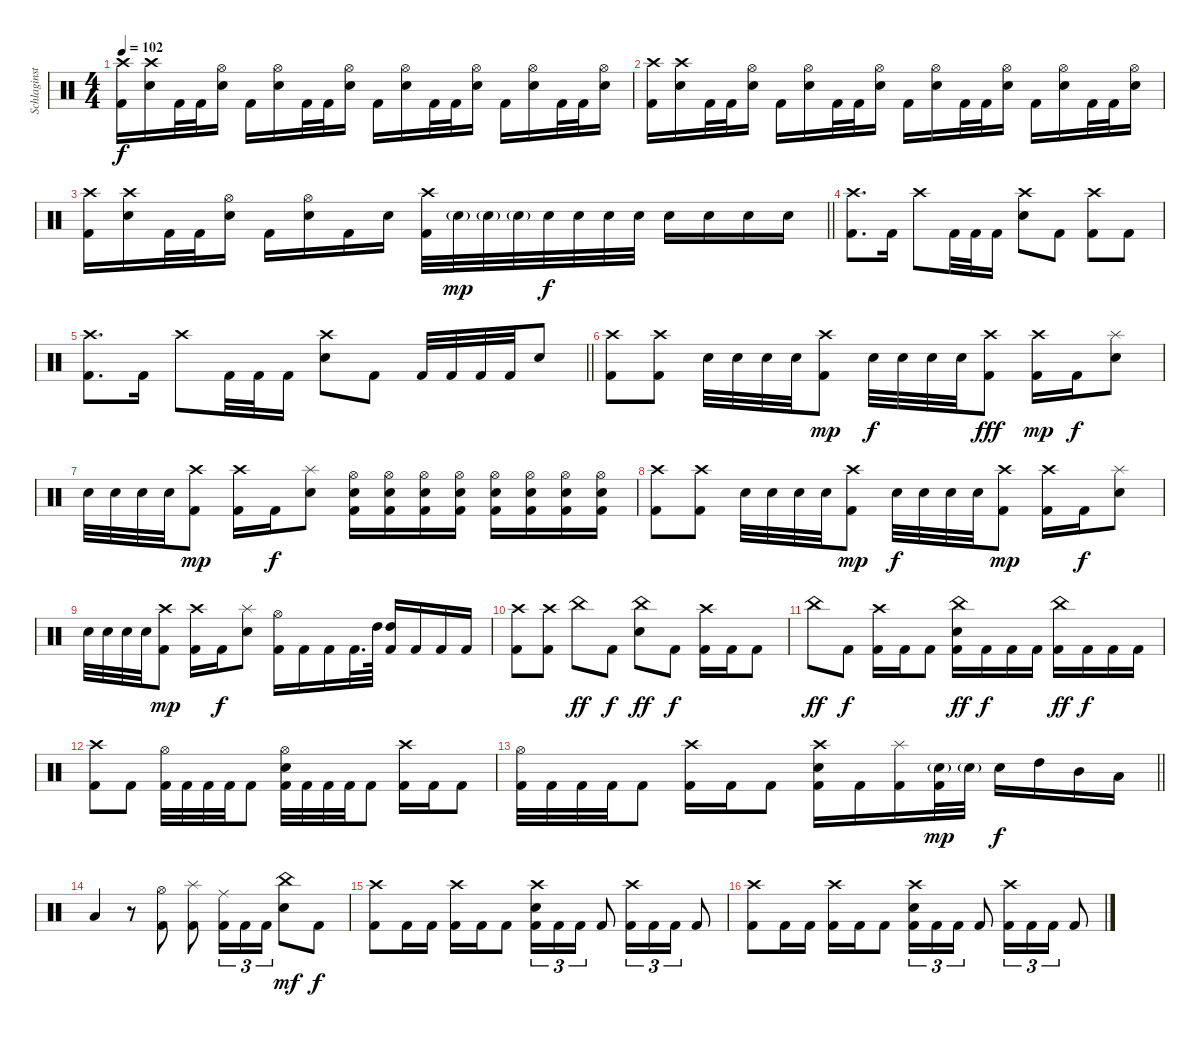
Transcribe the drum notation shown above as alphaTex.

\track ("Schlaginstrumente - Auswahl" "Schlaginst") {instrument percussion}
\staff {score}
\articulation defaults
\ts (4 4)
\tempo 102
\clef neutral
\ks c
("Crash high (hit)" "Kick (hit) 2").16{dy f} ("Crash high (hit)" "Snare (hit) 2").16 "Kick (hit) 2".32 "Kick (hit) 2".32 ("Hi-Hat (open)" "Snare (hit) 2").16 "Kick (hit) 2".16 ("Hi-Hat (open)" "Snare (hit) 2").16 "Kick (hit) 2".32 "Kick (hit) 2".32 ("Hi-Hat (open)" "Snare (hit) 2").16 "Kick (hit) 2".16 ("Hi-Hat (open)" "Snare (hit) 2").16 "Kick (hit) 2".32 "Kick (hit) 2".32 ("Hi-Hat (open)" "Snare (hit) 2").16 "Kick (hit) 2".16 ("Hi-Hat (open)" "Snare (hit) 2").16 "Kick (hit) 2".32 "Kick (hit) 2".32 ("Hi-Hat (open)" "Snare (hit) 2").16 |
("Crash high (hit)" "Kick (hit) 2").16 ("Crash high (hit)" "Snare (hit) 2").16 "Kick (hit) 2".32 "Kick (hit) 2".32 ("Hi-Hat (open)" "Snare (hit) 2").16 "Kick (hit) 2".16 ("Hi-Hat (open)" "Snare (hit) 2").16 "Kick (hit) 2".32 "Kick (hit) 2".32 ("Hi-Hat (open)" "Snare (hit) 2").16 "Kick (hit) 2".16 ("Hi-Hat (open)" "Snare (hit) 2").16 "Kick (hit) 2".32 "Kick (hit) 2".32 ("Hi-Hat (open)" "Snare (hit) 2").16 "Kick (hit) 2".16 ("Hi-Hat (open)" "Snare (hit) 2").16 "Kick (hit) 2".32 "Kick (hit) 2".32 ("Hi-Hat (open)" "Snare (hit) 2").16 |
\barLineRight lightlight
("Crash high (hit)" "Kick (hit) 2").16 ("Crash high (hit)" "Snare (hit) 2").16 "Kick (hit) 2".32 "Kick (hit) 2".32 ("Hi-Hat (open)" "Snare (hit) 2").16 "Kick (hit) 2".16 ("Hi-Hat (open)" "Snare (hit) 2").16 "Kick (hit) 2".16 "Snare (hit) 2".16 ("Crash high (hit)" "Kick (hit) 2").32 "Snare (hit) 2"{g}.32{dy mp} "Snare (hit) 2"{g}.32 "Snare (hit) 2"{g}.32 "Snare (hit) 2".32{dy f} "Snare (hit) 2".32 "Snare (hit) 2".32 "Snare (hit) 2".32 "Snare (hit) 2".16 "Snare (hit) 2".16 "Snare (hit) 2".16 "Snare (hit) 2".16 |
("Crash high (hit)" "Kick (hit) 2").8{d} "Kick (hit) 2".16 "Crash high (hit)".8 "Kick (hit) 2".32 "Kick (hit) 2".32 "Kick (hit) 2".16 ("Crash high (hit)" "Snare (hit) 2").8 "Kick (hit) 2".8 ("Crash high (hit)" "Kick (hit) 2").8 "Kick (hit) 2".8 |
\barLineRight lightlight
("Crash high (hit)" "Kick (hit) 2").8{d} "Kick (hit) 2".16 "Crash high (hit)".8 "Kick (hit) 2".32 "Kick (hit) 2".32 "Kick (hit) 2".16 ("Crash high (hit)" "Snare (hit) 2").8 "Kick (hit) 2".8 "Kick (hit) 2".32 "Kick (hit) 2".32 "Kick (hit) 2".32 "Kick (hit) 2".32 "Snare (hit) 2".8 |
("Crash high (hit)" "Kick (hit) 2").8 ("Crash high (hit)" "Kick (hit) 2").8 "Snare (hit) 2".32 "Snare (hit) 2".32 "Snare (hit) 2".32 "Snare (hit) 2".32 ("Crash high (hit)" "Kick (hit) 2").8{dy mp} "Snare (hit) 2".32{dy f} "Snare (hit) 2".32 "Snare (hit) 2".32 "Snare (hit) 2".32 ("Crash high (hit)" "Kick (hit) 2").8{dy fff} ("Crash high (hit)" "Kick (hit) 2").16{dy mp} "Kick (hit) 2".16{dy f} ("Splash (hit)" "Snare (hit) 2").8 |
"Snare (hit) 2".32 "Snare (hit) 2".32 "Snare (hit) 2".32 "Snare (hit) 2".32 ("Crash high (hit)" "Kick (hit) 2").8{dy mp} ("Crash high (hit)" "Kick (hit) 2").16 "Kick (hit) 2".16{dy f} ("Splash (hit)" "Snare (hit) 2").8 ("Hi-Hat (open)" "Snare (hit) 2" "Kick (hit) 2").16 ("Hi-Hat (open)" "Snare (hit) 2" "Kick (hit) 2").16 ("Hi-Hat (open)" "Snare (hit) 2" "Kick (hit) 2").16 ("Hi-Hat (open)" "Snare (hit) 2" "Kick (hit) 2").16 ("Hi-Hat (open)" "Snare (hit) 2" "Kick (hit) 2").16 ("Hi-Hat (open)" "Snare (hit) 2" "Kick (hit) 2").16 ("Hi-Hat (open)" "Snare (hit) 2" "Kick (hit) 2").16 ("Hi-Hat (open)" "Snare (hit) 2" "Kick (hit) 2").16 |
("Crash high (hit)" "Kick (hit) 2").8 ("Crash high (hit)" "Kick (hit) 2").8 "Snare (hit) 2".32 "Snare (hit) 2".32 "Snare (hit) 2".32 "Snare (hit) 2".32 ("Crash high (hit)" "Kick (hit) 2").8{dy mp} "Snare (hit) 2".32{dy f} "Snare (hit) 2".32 "Snare (hit) 2".32 "Snare (hit) 2".32 ("Crash high (hit)" "Kick (hit) 2").8{dy mp} ("Crash high (hit)" "Kick (hit) 2").16 "Kick (hit) 2".16{dy f} ("Splash (hit)" "Snare (hit) 2").8 |
"Snare (hit) 2".32 "Snare (hit) 2".32 "Snare (hit) 2".32 "Snare (hit) 2".32 ("Crash high (hit)" "Kick (hit) 2").8{dy mp} ("Crash high (hit)" "Kick (hit) 2").16 "Kick (hit) 2".16{dy f} ("Splash (hit)" "Snare (hit) 2").8 ("Hi-Hat (open)" "Kick (hit) 2").16 "Kick (hit) 2".16 "Kick (hit) 2".16 "Kick (hit) 2".32{d} "High Tom (hit)".64 ("High Tom (hit)" "Kick (hit) 2").16 "Kick (hit) 2".16 "Kick (hit) 2".16 "Kick (hit) 2".16 |
("Crash high (hit)" "Kick (hit) 2").8 ("Crash high (hit)" "Kick (hit) 2").8 "China (hit)".8{dy ff} "Kick (hit) 2".8{dy f} ("China (hit)" "Snare (hit) 2").8{dy ff} "Kick (hit) 2".8{dy f} ("Crash high (hit)" "Kick (hit) 2").16 "Kick (hit) 2".16 "Kick (hit) 2".8 |
"China (hit)".8{dy ff} "Kick (hit) 2".8{dy f} ("Crash high (hit)" "Kick (hit) 2").16 "Kick (hit) 2".16 "Kick (hit) 2".8 ("China (hit)" "Snare (hit) 2" "Kick (hit) 2").16{dy ff} "Kick (hit) 2".16{dy f} "Kick (hit) 2".16 "Kick (hit) 2".16 ("China (hit)" "Kick (hit) 2").16{dy ff} "Kick (hit) 2".16{dy f} "Kick (hit) 2".16 "Kick (hit) 2".16 |
("Crash high (hit)" "Kick (hit) 2").8 "Kick (hit) 2".8 ("Hi-Hat (open)" "Kick (hit) 2").32 "Kick (hit) 2".32 "Kick (hit) 2".32 "Kick (hit) 2".32 "Kick (hit) 2".8 ("Hi-Hat (open)" "Snare (hit) 2" "Kick (hit) 2").32 "Kick (hit) 2".32 "Kick (hit) 2".32 "Kick (hit) 2".32 "Kick (hit) 2".8 ("Crash high (hit)" "Kick (hit) 2").16 "Kick (hit) 2".16 "Kick (hit) 2".8 |
\barLineRight lightlight
("Hi-Hat (open)" "Kick (hit) 2").32 "Kick (hit) 2".32 "Kick (hit) 2".32 "Kick (hit) 2".32 "Kick (hit) 2".8 ("Crash high (hit)" "Kick (hit) 2").16 "Kick (hit) 2".16 "Kick (hit) 2".8 ("Crash high (hit)" "Snare (hit) 2" "Kick (hit) 2").16 "Kick (hit) 2".16 ("Splash (hit)" "Kick (hit) 2").16 ("Snare (hit) 2"{g} "Kick (hit) 2").32{dy mp} "Snare (hit) 2"{g}.32 "Snare (hit) 2".16{dy f} "High Tom (hit)".16 "Mid Tom (hit)".16 "Low Tom (hit)".16 |
"Low Floor Tom (hit)".4 r.8 ("Hi-Hat (open)" "Kick (hit) 2").8 ("Splash (hit)" "Kick (hit) 2").8 ("Ride (middle)" "Kick (hit) 2").16{tu (3 2)} "Kick (hit) 2".16{tu (3 2)} "Kick (hit) 2".16{tu (3 2)} ("China (hit)" "Snare (hit) 2").8{dy mf} "Kick (hit) 2".8{dy f} |
("Crash high (hit)" "Kick (hit) 2").8 "Kick (hit) 2".16 "Kick (hit) 2".16 ("Crash high (hit)" "Kick (hit) 2").16 "Kick (hit) 2".16 "Kick (hit) 2".8 ("Crash high (hit)" "Snare (hit) 2" "Kick (hit) 2").16{tu (3 2)} "Kick (hit) 2".16{tu (3 2)} "Kick (hit) 2".16{tu (3 2)} "Kick (hit) 2".8 ("Crash high (hit)" "Kick (hit) 2").16{tu (3 2)} "Kick (hit) 2".16{tu (3 2)} "Kick (hit) 2".16{tu (3 2)} "Kick (hit) 2".8 |
("Crash high (hit)" "Kick (hit) 2").8 "Kick (hit) 2".16 "Kick (hit) 2".16 ("Crash high (hit)" "Kick (hit) 2").16 "Kick (hit) 2".16 "Kick (hit) 2".8 ("Crash high (hit)" "Snare (hit) 2" "Kick (hit) 2").16{tu (3 2)} "Kick (hit) 2".16{tu (3 2)} "Kick (hit) 2".16{tu (3 2)} "Kick (hit) 2".8 ("Crash high (hit)" "Kick (hit) 2").16{tu (3 2)} "Kick (hit) 2".16{tu (3 2)} "Kick (hit) 2".16{tu (3 2)} "Kick (hit) 2".8
